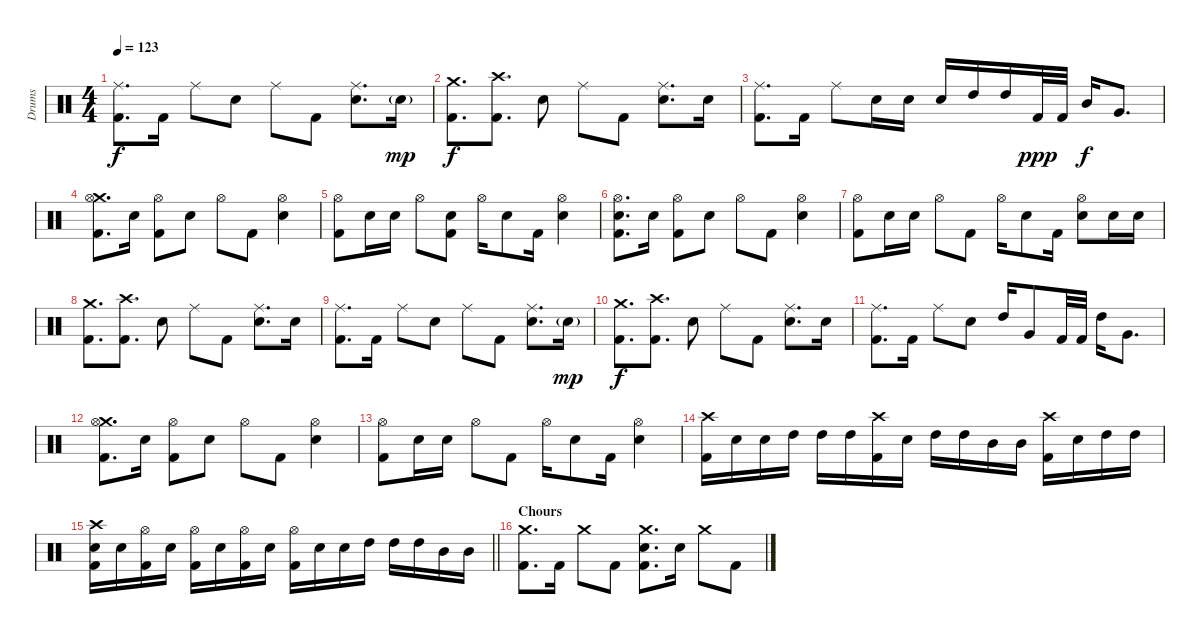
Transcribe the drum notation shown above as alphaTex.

\track ("Drums" "Drums") {instrument percussion}
\staff {score}
\articulation defaults
\ts (4 4)
\tempo 123
\clef neutral
\ks c
("Ride (middle)" "Kick (hit) 2").8{d dy f} "Kick (hit) 2".16 "Ride (middle)".8 "Electric Snare (hit)".8 "Ride (middle)".8 "Kick (hit) 2".8 ("Ride (middle)" "Electric Snare (hit)").8{d} "Electric Snare (hit)"{g}.16{dy mp} |
("Crash medium (hit)" "Kick (hit) 2").8{d dy f} ("Crash high (hit)" "Kick (hit) 2").8{d} "Electric Snare (hit)".8 "Ride (middle)".8 "Kick (hit) 2".8 ("Ride (middle)" "Electric Snare (hit)").8{d} "Electric Snare (hit)".16 |
("Ride (middle)" "Kick (hit) 2").8{d} "Kick (hit) 2".16 "Ride (middle)".8 "Electric Snare (hit)".16 "Electric Snare (hit)".16 "Electric Snare (hit)".16 "High Tom (hit)".16 "High Tom (hit)".16 "Kick (hit) 2".32{dy ppp} "Kick (hit) 2".32 "Mid Tom (hit)".16{dy f} "Very Low Tom (hit)".8{d} |
("Crash medium (hit)" "Hi-Hat (open)" "Kick (hit) 2").8{d} "Electric Snare (hit)".16 ("Hi-Hat (open)" "Kick (hit) 2").8 "Electric Snare (hit)".8 "Hi-Hat (open)".8 "Kick (hit) 2".8 ("Hi-Hat (open)" "Electric Snare (hit)").4 |
("Hi-Hat (open)" "Kick (hit) 2").8 "Electric Snare (hit)".16 "Electric Snare (hit)".16 "Hi-Hat (open)".8 ("Electric Snare (hit)" "Kick (hit) 2").8 "Hi-Hat (open)".16 "Electric Snare (hit)".8 "Kick (hit) 2".16 ("Hi-Hat (open)" "Electric Snare (hit)").4 |
("Hi-Hat (open)" "Electric Snare (hit)" "Kick (hit) 2").8{d} "Electric Snare (hit)".16 ("Hi-Hat (open)" "Kick (hit) 2").8 "Electric Snare (hit)".8 "Hi-Hat (open)".8 "Kick (hit) 2".8 ("Hi-Hat (open)" "Electric Snare (hit)").4 |
("Hi-Hat (open)" "Kick (hit) 2").8 "Electric Snare (hit)".16 "Electric Snare (hit)".16 "Hi-Hat (open)".8 "Kick (hit) 2".8 "Hi-Hat (open)".16 "Electric Snare (hit)".8 "Kick (hit) 2".16 ("Hi-Hat (open)" "Electric Snare (hit)").8 "Electric Snare (hit)".16 "Electric Snare (hit)".16 |
("Crash medium (hit)" "Kick (hit) 2").8{d} ("Crash high (hit)" "Kick (hit) 2").8{d} "Electric Snare (hit)".8 "Ride (middle)".8 "Kick (hit) 2".8 ("Ride (middle)" "Electric Snare (hit)").8{d} "Electric Snare (hit)".16 |
("Ride (middle)" "Kick (hit) 2").8{d} "Kick (hit) 2".16 "Ride (middle)".8 "Electric Snare (hit)".8 "Ride (middle)".8 "Kick (hit) 2".8 ("Ride (middle)" "Electric Snare (hit)").8{d} "Electric Snare (hit)"{g}.16{dy mp} |
("Crash medium (hit)" "Kick (hit) 2").8{d dy f} ("Crash high (hit)" "Kick (hit) 2").8{d} "Electric Snare (hit)".8 "Ride (middle)".8 "Kick (hit) 2".8 ("Ride (middle)" "Electric Snare (hit)").8{d} "Electric Snare (hit)".16 |
("Ride (middle)" "Kick (hit) 2").8{d} "Kick (hit) 2".16 "Ride (middle)".8 "Electric Snare (hit)".8 "High Tom (hit)".16 "Very Low Tom (hit)".8 "Kick (hit) 2".32 "Kick (hit) 2".32 "High Tom (hit)".16 "Very Low Tom (hit)".8{d} |
("Crash medium (hit)" "Hi-Hat (open)" "Kick (hit) 2").8{d} "Electric Snare (hit)".16 ("Hi-Hat (open)" "Kick (hit) 2").8 "Electric Snare (hit)".8 "Hi-Hat (open)".8 "Kick (hit) 2".8 ("Hi-Hat (open)" "Electric Snare (hit)").4 |
("Hi-Hat (open)" "Kick (hit) 2").8 "Electric Snare (hit)".16 "Electric Snare (hit)".16 "Hi-Hat (open)".8 "Kick (hit) 2".8 "Hi-Hat (open)".16 "Electric Snare (hit)".8 "Kick (hit) 2".16 ("Hi-Hat (open)" "Electric Snare (hit)").4 |
("Crash high (hit)" "Kick (hit) 2").16 "Electric Snare (hit)".16 "Electric Snare (hit)".16 "High Tom (hit)".16 "High Tom (hit)".16 "High Tom (hit)".16 ("Crash high (hit)" "Kick (hit) 2").16 "Electric Snare (hit)".16 "High Tom (hit)".16 "High Tom (hit)".16 "Mid Tom (hit)".16 "Mid Tom (hit)".16 ("Crash high (hit)" "Kick (hit) 2").16 "Electric Snare (hit)".16 "High Tom (hit)".16 "High Tom (hit)".16 |
\barLineRight lightlight
("Crash high (hit)" "Electric Snare (hit)" "Kick (hit) 2").16 "Electric Snare (hit)".16 ("Hi-Hat (open)" "Kick (hit) 2").16 "Electric Snare (hit)".16 ("Hi-Hat (open)" "Kick (hit) 2").16 "Electric Snare (hit)".16 ("Hi-Hat (open)" "Kick (hit) 2").16 "Electric Snare (hit)".16 ("Hi-Hat (open)" "Kick (hit) 2").16 "Electric Snare (hit)".16 "Electric Snare (hit)".16 "High Tom (hit)".16 "High Tom (hit)".16 "High Tom (hit)".16 "Mid Tom (hit)".16 "Mid Tom (hit)".16 |
\section ("" "Chours")
("Crash medium (hit)" "Kick (hit) 2").8{d} "Kick (hit) 2".16 "Crash medium (hit)".8 "Kick (hit) 2".8 ("Crash medium (hit)" "Electric Snare (hit)" "Kick (hit) 2").8{d} "Electric Snare (hit)".16 "Crash medium (hit)".8 "Kick (hit) 2".8
